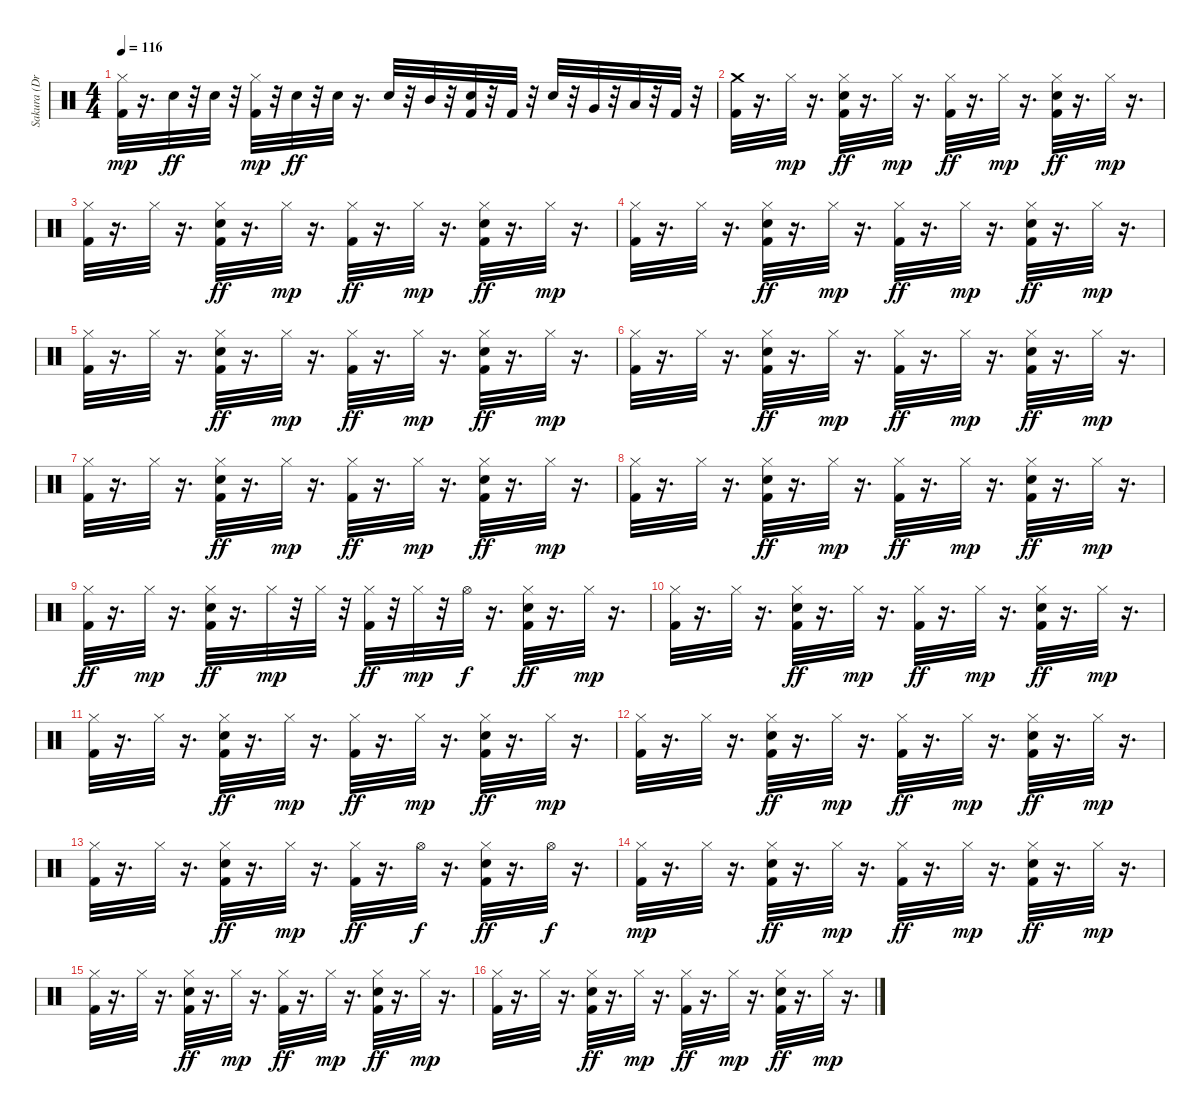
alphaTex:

\track ("Sakura (Drums)" "Sakura (Dr") {instrument percussion}
\staff {score}
\articulation defaults
\ts (4 4)
\tempo 116
\clef neutral
\ks c
("Kick (hit) 2" "Hi-Hat (closed)").32{dy mp} r.16{d} "Electric Snare (hit)".32{dy ff} r.32 "Electric Snare (hit)".32 r.32 ("Kick (hit) 2" "Hi-Hat (closed)").32{dy mp} r.32 "Electric Snare (hit)".32{dy ff} r.32 "Electric Snare (hit)".32 r.16{d} "Electric Snare (hit)".32 r.32 "Mid Tom (hit)".32 r.32 ("Electric Snare (hit)" "Kick (hit) 2").32 r.32 "Kick (hit) 2".32 r.32 "Electric Snare (hit)".32 r.32 "Very Low Tom (hit)".32 r.32 "Low Floor Tom (hit)".32 r.32 "Kick (hit) 2".32 r.32 |
("Crash medium (hit)" "Kick (hit) 2").32 r.16{d} "Hi-Hat (closed)".32{dy mp} r.16{d} ("Hi-Hat (closed)" "Electric Snare (hit)" "Kick (hit) 2").32{dy ff} r.16{d} "Hi-Hat (closed)".32{dy mp} r.16{d} ("Hi-Hat (closed)" "Kick (hit) 2").32{dy ff} r.16{d} "Hi-Hat (closed)".32{dy mp} r.16{d} ("Hi-Hat (closed)" "Electric Snare (hit)" "Kick (hit) 2").32{dy ff} r.16{d} "Hi-Hat (closed)".32{dy mp} r.16{d} |
("Kick (hit) 2" "Hi-Hat (closed)").32 r.16{d} "Hi-Hat (closed)".32 r.16{d} ("Hi-Hat (closed)" "Electric Snare (hit)" "Kick (hit) 2").32{dy ff} r.16{d} "Hi-Hat (closed)".32{dy mp} r.16{d} ("Hi-Hat (closed)" "Kick (hit) 2").32{dy ff} r.16{d} "Hi-Hat (closed)".32{dy mp} r.16{d} ("Hi-Hat (closed)" "Electric Snare (hit)" "Kick (hit) 2").32{dy ff} r.16{d} "Hi-Hat (closed)".32{dy mp} r.16{d} |
("Kick (hit) 2" "Hi-Hat (closed)").32 r.16{d} "Hi-Hat (closed)".32 r.16{d} ("Hi-Hat (closed)" "Electric Snare (hit)" "Kick (hit) 2").32{dy ff} r.16{d} "Hi-Hat (closed)".32{dy mp} r.16{d} ("Hi-Hat (closed)" "Kick (hit) 2").32{dy ff} r.16{d} "Hi-Hat (closed)".32{dy mp} r.16{d} ("Hi-Hat (closed)" "Electric Snare (hit)" "Kick (hit) 2").32{dy ff} r.16{d} "Hi-Hat (closed)".32{dy mp} r.16{d} |
("Kick (hit) 2" "Hi-Hat (closed)").32 r.16{d} "Hi-Hat (closed)".32 r.16{d} ("Hi-Hat (closed)" "Electric Snare (hit)" "Kick (hit) 2").32{dy ff} r.16{d} "Hi-Hat (closed)".32{dy mp} r.16{d} ("Hi-Hat (closed)" "Kick (hit) 2").32{dy ff} r.16{d} "Hi-Hat (closed)".32{dy mp} r.16{d} ("Hi-Hat (closed)" "Electric Snare (hit)" "Kick (hit) 2").32{dy ff} r.16{d} "Hi-Hat (closed)".32{dy mp} r.16{d} |
("Kick (hit) 2" "Hi-Hat (closed)").32 r.16{d} "Hi-Hat (closed)".32 r.16{d} ("Hi-Hat (closed)" "Electric Snare (hit)" "Kick (hit) 2").32{dy ff} r.16{d} "Hi-Hat (closed)".32{dy mp} r.16{d} ("Hi-Hat (closed)" "Kick (hit) 2").32{dy ff} r.16{d} "Hi-Hat (closed)".32{dy mp} r.16{d} ("Hi-Hat (closed)" "Electric Snare (hit)" "Kick (hit) 2").32{dy ff} r.16{d} "Hi-Hat (closed)".32{dy mp} r.16{d} |
("Kick (hit) 2" "Hi-Hat (closed)").32 r.16{d} "Hi-Hat (closed)".32 r.16{d} ("Hi-Hat (closed)" "Electric Snare (hit)" "Kick (hit) 2").32{dy ff} r.16{d} "Hi-Hat (closed)".32{dy mp} r.16{d} ("Hi-Hat (closed)" "Kick (hit) 2").32{dy ff} r.16{d} "Hi-Hat (closed)".32{dy mp} r.16{d} ("Hi-Hat (closed)" "Electric Snare (hit)" "Kick (hit) 2").32{dy ff} r.16{d} "Hi-Hat (closed)".32{dy mp} r.16{d} |
("Kick (hit) 2" "Hi-Hat (closed)").32 r.16{d} "Hi-Hat (closed)".32 r.16{d} ("Hi-Hat (closed)" "Electric Snare (hit)" "Kick (hit) 2").32{dy ff} r.16{d} "Hi-Hat (closed)".32{dy mp} r.16{d} ("Hi-Hat (closed)" "Kick (hit) 2").32{dy ff} r.16{d} "Hi-Hat (closed)".32{dy mp} r.16{d} ("Hi-Hat (closed)" "Electric Snare (hit)" "Kick (hit) 2").32{dy ff} r.16{d} "Hi-Hat (closed)".32{dy mp} r.16{d} |
("Hi-Hat (closed)" "Kick (hit) 2").32{dy ff} r.16{d} "Hi-Hat (closed)".32{dy mp} r.16{d} ("Hi-Hat (closed)" "Electric Snare (hit)" "Kick (hit) 2").32{dy ff} r.16{d} "Hi-Hat (closed)".32{dy mp} r.32 "Hi-Hat (closed)".32 r.32 ("Hi-Hat (closed)" "Kick (hit) 2").32{dy ff} r.32 "Hi-Hat (closed)".32{dy mp} r.32 "Hi-Hat (open)".32{dy f} r.16{d} ("Hi-Hat (closed)" "Electric Snare (hit)" "Kick (hit) 2").32{dy ff} r.16{d} "Hi-Hat (closed)".32{dy mp} r.16{d} |
("Kick (hit) 2" "Hi-Hat (closed)").32 r.16{d} "Hi-Hat (closed)".32 r.16{d} ("Hi-Hat (closed)" "Electric Snare (hit)" "Kick (hit) 2").32{dy ff} r.16{d} "Hi-Hat (closed)".32{dy mp} r.16{d} ("Hi-Hat (closed)" "Kick (hit) 2").32{dy ff} r.16{d} "Hi-Hat (closed)".32{dy mp} r.16{d} ("Hi-Hat (closed)" "Electric Snare (hit)" "Kick (hit) 2").32{dy ff} r.16{d} "Hi-Hat (closed)".32{dy mp} r.16{d} |
("Kick (hit) 2" "Hi-Hat (closed)").32 r.16{d} "Hi-Hat (closed)".32 r.16{d} ("Hi-Hat (closed)" "Electric Snare (hit)" "Kick (hit) 2").32{dy ff} r.16{d} "Hi-Hat (closed)".32{dy mp} r.16{d} ("Hi-Hat (closed)" "Kick (hit) 2").32{dy ff} r.16{d} "Hi-Hat (closed)".32{dy mp} r.16{d} ("Hi-Hat (closed)" "Electric Snare (hit)" "Kick (hit) 2").32{dy ff} r.16{d} "Hi-Hat (closed)".32{dy mp} r.16{d} |
("Kick (hit) 2" "Hi-Hat (closed)").32 r.16{d} "Hi-Hat (closed)".32 r.16{d} ("Hi-Hat (closed)" "Electric Snare (hit)" "Kick (hit) 2").32{dy ff} r.16{d} "Hi-Hat (closed)".32{dy mp} r.16{d} ("Hi-Hat (closed)" "Kick (hit) 2").32{dy ff} r.16{d} "Hi-Hat (closed)".32{dy mp} r.16{d} ("Hi-Hat (closed)" "Electric Snare (hit)" "Kick (hit) 2").32{dy ff} r.16{d} "Hi-Hat (closed)".32{dy mp} r.16{d} |
("Kick (hit) 2" "Hi-Hat (closed)").32 r.16{d} "Hi-Hat (closed)".32 r.16{d} ("Hi-Hat (closed)" "Electric Snare (hit)" "Kick (hit) 2").32{dy ff} r.16{d} "Hi-Hat (closed)".32{dy mp} r.16{d} ("Hi-Hat (closed)" "Kick (hit) 2").32{dy ff} r.16{d} "Hi-Hat (open)".32{dy f} r.16{d} ("Hi-Hat (closed)" "Electric Snare (hit)" "Kick (hit) 2").32{dy ff} r.16{d} "Hi-Hat (open)".32{dy f} r.16{d} |
("Kick (hit) 2" "Hi-Hat (closed)").32{dy mp} r.16{d} "Hi-Hat (closed)".32 r.16{d} ("Hi-Hat (closed)" "Electric Snare (hit)" "Kick (hit) 2").32{dy ff} r.16{d} "Hi-Hat (closed)".32{dy mp} r.16{d} ("Hi-Hat (closed)" "Kick (hit) 2").32{dy ff} r.16{d} "Hi-Hat (closed)".32{dy mp} r.16{d} ("Hi-Hat (closed)" "Electric Snare (hit)" "Kick (hit) 2").32{dy ff} r.16{d} "Hi-Hat (closed)".32{dy mp} r.16{d} |
("Kick (hit) 2" "Hi-Hat (closed)").32 r.16{d} "Hi-Hat (closed)".32 r.16{d} ("Hi-Hat (closed)" "Electric Snare (hit)" "Kick (hit) 2").32{dy ff} r.16{d} "Hi-Hat (closed)".32{dy mp} r.16{d} ("Hi-Hat (closed)" "Kick (hit) 2").32{dy ff} r.16{d} "Hi-Hat (closed)".32{dy mp} r.16{d} ("Hi-Hat (closed)" "Electric Snare (hit)" "Kick (hit) 2").32{dy ff} r.16{d} "Hi-Hat (closed)".32{dy mp} r.16{d} |
("Kick (hit) 2" "Hi-Hat (closed)").32 r.16{d} "Hi-Hat (closed)".32 r.16{d} ("Hi-Hat (closed)" "Electric Snare (hit)" "Kick (hit) 2").32{dy ff} r.16{d} "Hi-Hat (closed)".32{dy mp} r.16{d} ("Hi-Hat (closed)" "Kick (hit) 2").32{dy ff} r.16{d} "Hi-Hat (closed)".32{dy mp} r.16{d} ("Hi-Hat (closed)" "Electric Snare (hit)" "Kick (hit) 2").32{dy ff} r.16{d} "Hi-Hat (closed)".32{dy mp} r.16{d}
